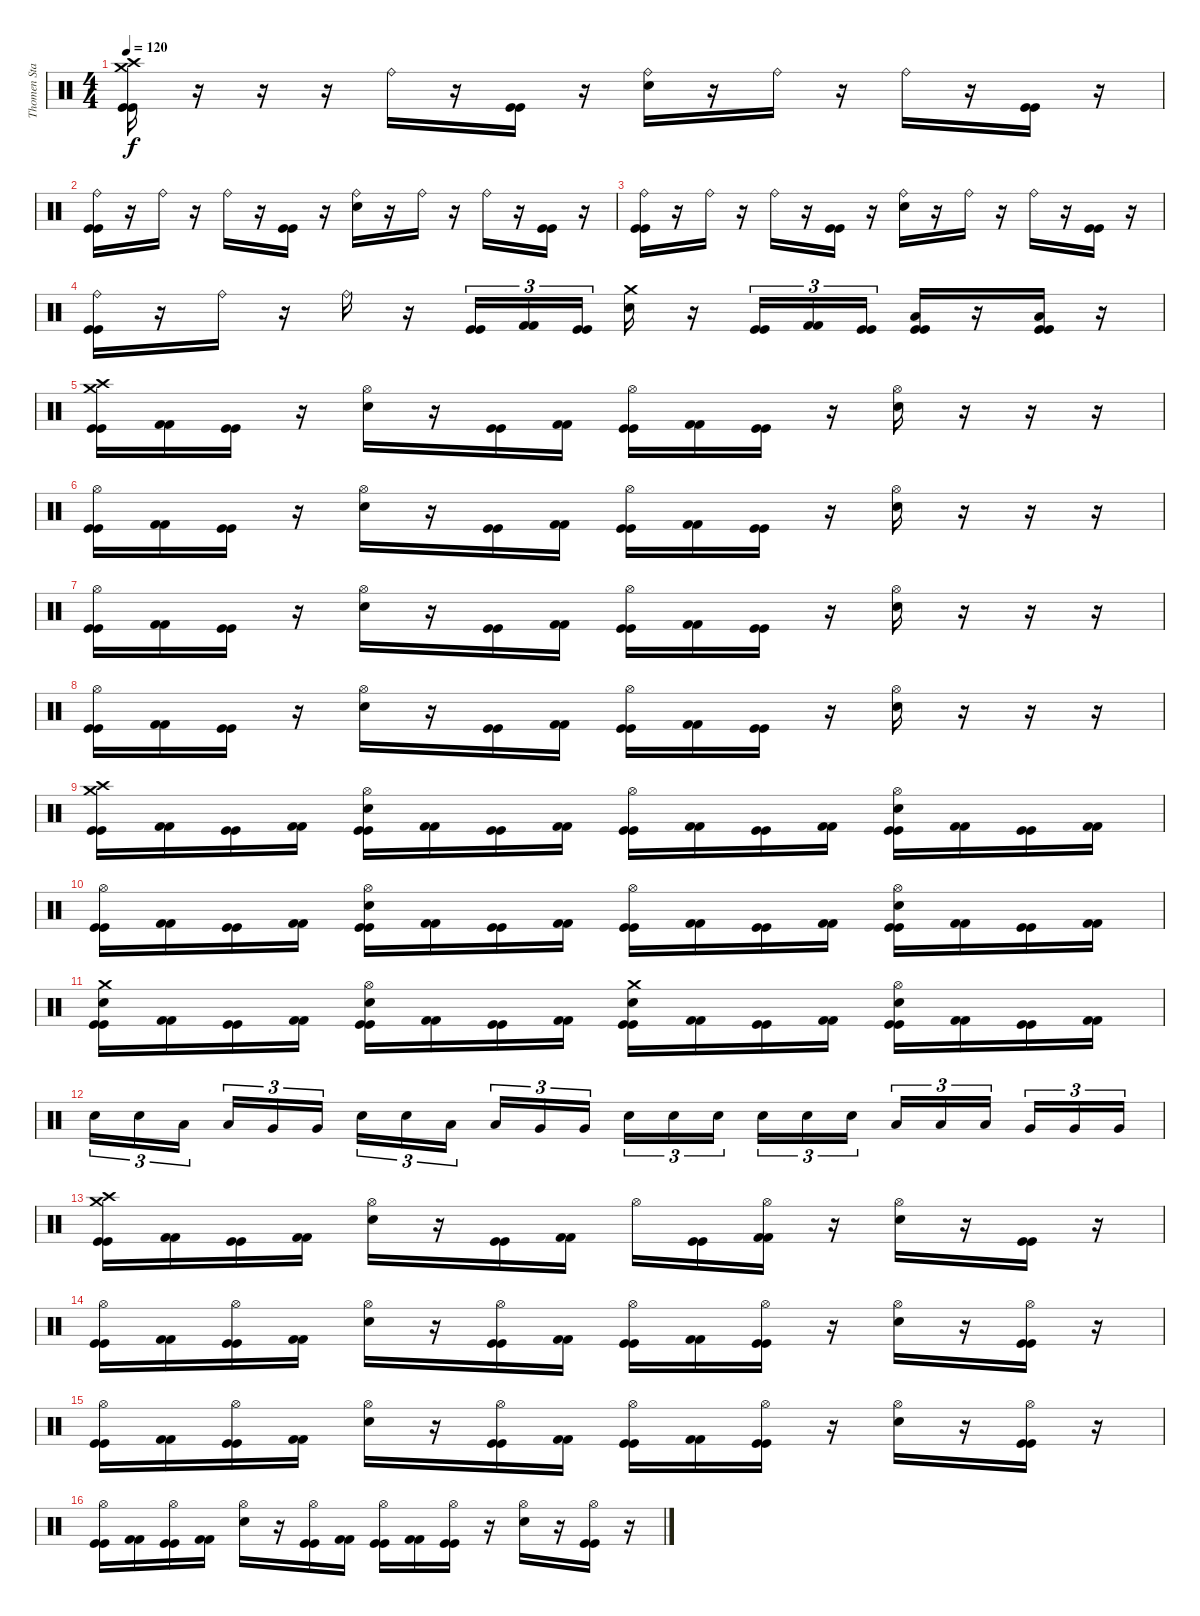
\track ("Thomen Stauch" "Thomen Sta") {instrument percussion}
\staff {score}
\articulation defaults
\ts (4 4)
\tempo 120
\clef neutral
\ks c
("Crash medium (hit)" "Crash high (hit)" "Kick (hit)" "Kick (hit)").16{dy f} r.16 r.16 r.16 "Ride (bell)".16 r.16 ("Kick (hit)" "Kick (hit)").16 r.16 ("Ride (bell)" "Snare (hit) 2").16 r.16 "Ride (bell)".16 r.16 "Ride (bell)".16 r.16 ("Kick (hit)" "Kick (hit)").16 r.16 |
("Ride (bell)" "Kick (hit)" "Kick (hit)").16 r.16 "Ride (bell)".16 r.16 "Ride (bell)".16 r.16 ("Kick (hit)" "Kick (hit)").16 r.16 ("Ride (bell)" "Snare (hit) 2").16 r.16 "Ride (bell)".16 r.16 "Ride (bell)".16 r.16 ("Kick (hit)" "Kick (hit)").16 r.16 |
("Ride (bell)" "Kick (hit)" "Kick (hit)").16 r.16 "Ride (bell)".16 r.16 "Ride (bell)".16 r.16 ("Kick (hit)" "Kick (hit)").16 r.16 ("Ride (bell)" "Snare (hit) 2").16 r.16 "Ride (bell)".16 r.16 "Ride (bell)".16 r.16 ("Kick (hit)" "Kick (hit)").16 r.16 |
("Ride (bell)" "Kick (hit)" "Kick (hit)").16 r.16 "Ride (bell)".16 r.16 "Ride (bell)".16 r.16 ("Kick (hit)" "Kick (hit)").16{tu (3 2)} ("Kick (hit) 2" "Kick (hit) 2").16{tu (3 2)} ("Kick (hit)" "Kick (hit)").16{tu (3 2)} ("Crash medium (hit)" "Snare (hit) 2").16 r.16 ("Kick (hit)" "Kick (hit)").16{tu (3 2)} ("Kick (hit) 2" "Kick (hit) 2").16{tu (3 2)} ("Kick (hit)" "Kick (hit)").16{tu (3 2)} ("Low Floor Tom (hit)" "Kick (hit)" "Kick (hit)").16 r.16 ("Low Floor Tom (hit)" "Kick (hit)" "Kick (hit)").16 r.16 |
("Crash medium (hit)" "Crash high (hit)" "Kick (hit)" "Kick (hit)").16 ("Kick (hit) 2" "Kick (hit) 2").16 ("Kick (hit)" "Kick (hit)").16 r.16 ("Hi-Hat (open)" "Snare (hit) 2").16 r.16 ("Kick (hit)" "Kick (hit)").16 ("Kick (hit) 2" "Kick (hit) 2").16 ("Hi-Hat (open)" "Kick (hit)" "Kick (hit)").16 ("Kick (hit) 2" "Kick (hit) 2").16 ("Kick (hit)" "Kick (hit)").16 r.16 ("Hi-Hat (open)" "Snare (hit) 2").16 r.16 r.16 r.16 |
("Hi-Hat (open)" "Kick (hit)" "Kick (hit)").16 ("Kick (hit) 2" "Kick (hit) 2").16 ("Kick (hit)" "Kick (hit)").16 r.16 ("Hi-Hat (open)" "Snare (hit) 2").16 r.16 ("Kick (hit)" "Kick (hit)").16 ("Kick (hit) 2" "Kick (hit) 2").16 ("Hi-Hat (open)" "Kick (hit)" "Kick (hit)").16 ("Kick (hit) 2" "Kick (hit) 2").16 ("Kick (hit)" "Kick (hit)").16 r.16 ("Hi-Hat (open)" "Snare (hit) 2").16 r.16 r.16 r.16 |
("Hi-Hat (open)" "Kick (hit)" "Kick (hit)").16 ("Kick (hit) 2" "Kick (hit) 2").16 ("Kick (hit)" "Kick (hit)").16 r.16 ("Hi-Hat (open)" "Snare (hit) 2").16 r.16 ("Kick (hit)" "Kick (hit)").16 ("Kick (hit) 2" "Kick (hit) 2").16 ("Hi-Hat (open)" "Kick (hit)" "Kick (hit)").16 ("Kick (hit) 2" "Kick (hit) 2").16 ("Kick (hit)" "Kick (hit)").16 r.16 ("Hi-Hat (open)" "Snare (hit) 2").16 r.16 r.16 r.16 |
("Hi-Hat (open)" "Kick (hit)" "Kick (hit)").16 ("Kick (hit) 2" "Kick (hit) 2").16 ("Kick (hit)" "Kick (hit)").16 r.16 ("Hi-Hat (open)" "Snare (hit) 2").16 r.16 ("Kick (hit)" "Kick (hit)").16 ("Kick (hit) 2" "Kick (hit) 2").16 ("Hi-Hat (open)" "Kick (hit)" "Kick (hit)").16 ("Kick (hit) 2" "Kick (hit) 2").16 ("Kick (hit)" "Kick (hit)").16 r.16 ("Hi-Hat (open)" "Snare (hit) 2").16 r.16 r.16 r.16 |
("Crash medium (hit)" "Crash high (hit)" "Kick (hit)" "Kick (hit)").16 ("Kick (hit) 2" "Kick (hit) 2").16 ("Kick (hit)" "Kick (hit)").16 ("Kick (hit) 2" "Kick (hit) 2").16 ("Hi-Hat (open)" "Snare (hit) 2" "Kick (hit)" "Kick (hit)").16 ("Kick (hit) 2" "Kick (hit) 2").16 ("Kick (hit)" "Kick (hit)").16 ("Kick (hit) 2" "Kick (hit) 2").16 ("Hi-Hat (open)" "Kick (hit)" "Kick (hit)").16 ("Kick (hit) 2" "Kick (hit) 2").16 ("Kick (hit)" "Kick (hit)").16 ("Kick (hit) 2" "Kick (hit) 2").16 ("Hi-Hat (open)" "Snare (hit) 2" "Kick (hit)" "Kick (hit)").16 ("Kick (hit) 2" "Kick (hit) 2").16 ("Kick (hit)" "Kick (hit)").16 ("Kick (hit) 2" "Kick (hit) 2").16 |
("Hi-Hat (open)" "Kick (hit)" "Kick (hit)").16 ("Kick (hit) 2" "Kick (hit) 2").16 ("Kick (hit)" "Kick (hit)").16 ("Kick (hit) 2" "Kick (hit) 2").16 ("Hi-Hat (open)" "Snare (hit) 2" "Kick (hit)" "Kick (hit)").16 ("Kick (hit) 2" "Kick (hit) 2").16 ("Kick (hit)" "Kick (hit)").16 ("Kick (hit) 2" "Kick (hit) 2").16 ("Hi-Hat (open)" "Kick (hit)" "Kick (hit)").16 ("Kick (hit) 2" "Kick (hit) 2").16 ("Kick (hit)" "Kick (hit)").16 ("Kick (hit) 2" "Kick (hit) 2").16 ("Hi-Hat (open)" "Snare (hit) 2" "Kick (hit)" "Kick (hit)").16 ("Kick (hit) 2" "Kick (hit) 2").16 ("Kick (hit)" "Kick (hit)").16 ("Kick (hit) 2" "Kick (hit) 2").16 |
("Crash medium (hit)" "Snare (hit) 2" "Kick (hit)" "Kick (hit)").16 ("Kick (hit) 2" "Kick (hit) 2").16 ("Kick (hit)" "Kick (hit)").16 ("Kick (hit) 2" "Kick (hit) 2").16 ("Hi-Hat (open)" "Snare (hit) 2" "Kick (hit)" "Kick (hit)").16 ("Kick (hit) 2" "Kick (hit) 2").16 ("Kick (hit)" "Kick (hit)").16 ("Kick (hit) 2" "Kick (hit) 2").16 ("Crash medium (hit)" "Snare (hit) 2" "Kick (hit)" "Kick (hit)").16 ("Kick (hit) 2" "Kick (hit) 2").16 ("Kick (hit)" "Kick (hit)").16 ("Kick (hit) 2" "Kick (hit) 2").16 ("Hi-Hat (open)" "Snare (hit) 2" "Kick (hit)" "Kick (hit)").16 ("Kick (hit) 2" "Kick (hit) 2").16 ("Kick (hit)" "Kick (hit)").16 ("Kick (hit) 2" "Kick (hit) 2").16 |
"Snare (hit) 2".16{tu (3 2)} "Snare (hit) 2".16{tu (3 2)} "Low Tom (hit)".16{tu (3 2)} "Low Tom (hit)".16{tu (3 2)} "Very Low Tom (hit)".16{tu (3 2)} "Very Low Tom (hit)".16{tu (3 2)} "Snare (hit) 2".16{tu (3 2)} "Snare (hit) 2".16{tu (3 2)} "Low Tom (hit)".16{tu (3 2)} "Low Tom (hit)".16{tu (3 2)} "Very Low Tom (hit)".16{tu (3 2)} "Very Low Tom (hit)".16{tu (3 2)} "Snare (hit) 2".16{tu (3 2)} "Snare (hit) 2".16{tu (3 2)} "Snare (hit) 2".16{tu (3 2)} "Snare (hit) 2".16{tu (3 2)} "Snare (hit) 2".16{tu (3 2)} "Snare (hit) 2".16{tu (3 2)} "Low Tom (hit)".16{tu (3 2)} "Low Tom (hit)".16{tu (3 2)} "Low Tom (hit)".16{tu (3 2)} "Very Low Tom (hit)".16{tu (3 2)} "Very Low Tom (hit)".16{tu (3 2)} "Very Low Tom (hit)".16{tu (3 2)} |
("Crash medium (hit)" "Crash high (hit)" "Kick (hit)" "Kick (hit)").16 ("Kick (hit) 2" "Kick (hit) 2").16 ("Kick (hit)" "Kick (hit)").16 ("Kick (hit) 2" "Kick (hit) 2").16 ("Hi-Hat (open)" "Snare (hit) 2").16 r.16 ("Kick (hit)" "Kick (hit)").16 ("Kick (hit) 2" "Kick (hit) 2").16 "Hi-Hat (open)".16 ("Kick (hit)" "Kick (hit)").16 ("Hi-Hat (open)" "Kick (hit) 2" "Kick (hit) 2").16 r.16 ("Hi-Hat (open)" "Snare (hit) 2").16 r.16 ("Kick (hit)" "Kick (hit)").16 r.16 |
("Hi-Hat (open)" "Kick (hit)" "Kick (hit)").16 ("Kick (hit) 2" "Kick (hit) 2").16 ("Hi-Hat (open)" "Kick (hit)" "Kick (hit)").16 ("Kick (hit) 2" "Kick (hit) 2").16 ("Hi-Hat (open)" "Snare (hit) 2").16 r.16 ("Hi-Hat (open)" "Kick (hit)" "Kick (hit)").16 ("Kick (hit) 2" "Kick (hit) 2").16 ("Hi-Hat (open)" "Kick (hit)" "Kick (hit)").16 ("Kick (hit) 2" "Kick (hit) 2").16 ("Hi-Hat (open)" "Kick (hit)" "Kick (hit)").16 r.16 ("Hi-Hat (open)" "Snare (hit) 2").16 r.16 ("Hi-Hat (open)" "Kick (hit)" "Kick (hit)").16 r.16 |
("Hi-Hat (open)" "Kick (hit)" "Kick (hit)").16 ("Kick (hit) 2" "Kick (hit) 2").16 ("Hi-Hat (open)" "Kick (hit)" "Kick (hit)").16 ("Kick (hit) 2" "Kick (hit) 2").16 ("Hi-Hat (open)" "Snare (hit) 2").16 r.16 ("Hi-Hat (open)" "Kick (hit)" "Kick (hit)").16 ("Kick (hit) 2" "Kick (hit) 2").16 ("Hi-Hat (open)" "Kick (hit)" "Kick (hit)").16 ("Kick (hit) 2" "Kick (hit) 2").16 ("Hi-Hat (open)" "Kick (hit)" "Kick (hit)").16 r.16 ("Hi-Hat (open)" "Snare (hit) 2").16 r.16 ("Hi-Hat (open)" "Kick (hit)" "Kick (hit)").16 r.16 |
("Hi-Hat (open)" "Kick (hit)" "Kick (hit)").16 ("Kick (hit) 2" "Kick (hit) 2").16 ("Hi-Hat (open)" "Kick (hit)" "Kick (hit)").16 ("Kick (hit) 2" "Kick (hit) 2").16 ("Hi-Hat (open)" "Snare (hit) 2").16 r.16 ("Hi-Hat (open)" "Kick (hit)" "Kick (hit)").16 ("Kick (hit) 2" "Kick (hit) 2").16 ("Hi-Hat (open)" "Kick (hit)" "Kick (hit)").16 ("Kick (hit) 2" "Kick (hit) 2").16 ("Hi-Hat (open)" "Kick (hit)" "Kick (hit)").16 r.16 ("Hi-Hat (open)" "Snare (hit) 2").16 r.16 ("Hi-Hat (open)" "Kick (hit)" "Kick (hit)").16 r.16
